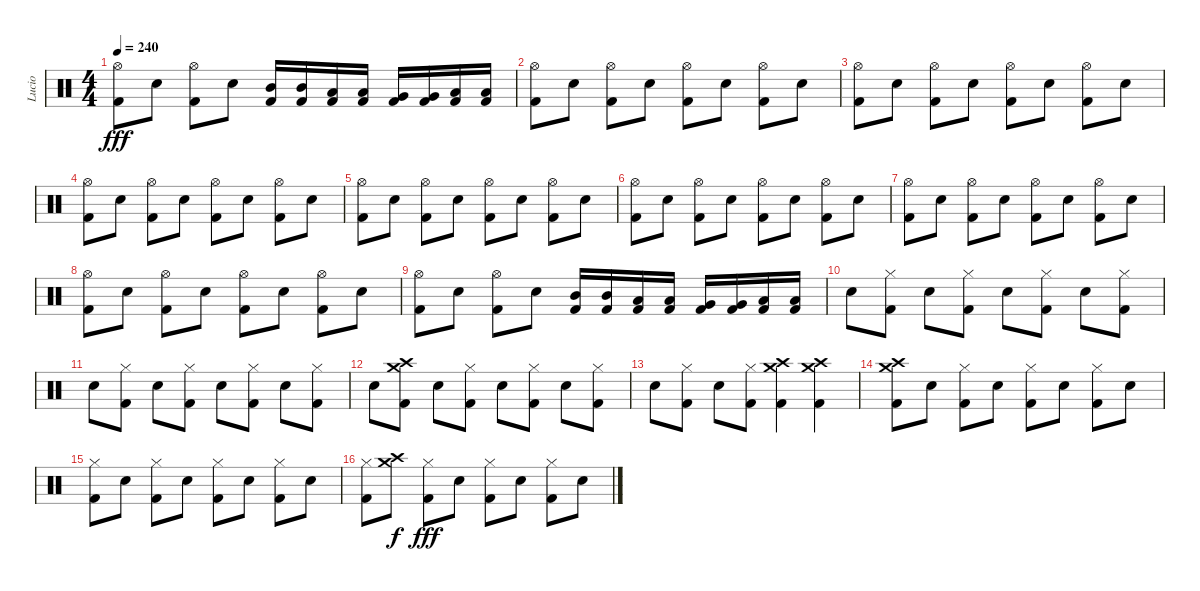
\track ("Lucio" "Lucio") {instrument percussion}
\staff {score}
\articulation defaults
\ts (4 4)
\tempo 240
\clef neutral
\ks c
("Hi-Hat (open)" "Kick (hit) 2").8{dy fff} "Electric Snare (hit)".8 ("Hi-Hat (open)" "Kick (hit) 2").8 "Electric Snare (hit)".8 ("Mid Tom (hit)" "Kick (hit) 2").16 ("Mid Tom (hit)" "Kick (hit) 2").16 ("Low Tom (hit)" "Kick (hit) 2").16 ("Low Tom (hit)" "Kick (hit) 2").16 ("Very Low Tom (hit)" "Kick (hit) 2").16 ("Very Low Tom (hit)" "Kick (hit) 2").16 ("Low Floor Tom (hit)" "Kick (hit) 2").16 ("Low Floor Tom (hit)" "Kick (hit) 2").16 |
("Hi-Hat (open)" "Kick (hit) 2").8 "Electric Snare (hit)".8 ("Hi-Hat (open)" "Kick (hit) 2").8 "Electric Snare (hit)".8 ("Hi-Hat (open)" "Kick (hit) 2").8 "Electric Snare (hit)".8 ("Hi-Hat (open)" "Kick (hit) 2").8 "Electric Snare (hit)".8 |
("Hi-Hat (open)" "Kick (hit) 2").8 "Electric Snare (hit)".8 ("Hi-Hat (open)" "Kick (hit) 2").8 "Electric Snare (hit)".8 ("Hi-Hat (open)" "Kick (hit) 2").8 "Electric Snare (hit)".8 ("Hi-Hat (open)" "Kick (hit) 2").8 "Electric Snare (hit)".8 |
("Hi-Hat (open)" "Kick (hit) 2").8 "Electric Snare (hit)".8 ("Hi-Hat (open)" "Kick (hit) 2").8 "Electric Snare (hit)".8 ("Hi-Hat (open)" "Kick (hit) 2").8 "Electric Snare (hit)".8 ("Hi-Hat (open)" "Kick (hit) 2").8 "Electric Snare (hit)".8 |
("Hi-Hat (open)" "Kick (hit) 2").8 "Electric Snare (hit)".8 ("Hi-Hat (open)" "Kick (hit) 2").8 "Electric Snare (hit)".8 ("Hi-Hat (open)" "Kick (hit) 2").8 "Electric Snare (hit)".8 ("Hi-Hat (open)" "Kick (hit) 2").8 "Electric Snare (hit)".8 |
("Hi-Hat (open)" "Kick (hit) 2").8 "Electric Snare (hit)".8 ("Hi-Hat (open)" "Kick (hit) 2").8 "Electric Snare (hit)".8 ("Hi-Hat (open)" "Kick (hit) 2").8 "Electric Snare (hit)".8 ("Hi-Hat (open)" "Kick (hit) 2").8 "Electric Snare (hit)".8 |
("Hi-Hat (open)" "Kick (hit) 2").8 "Electric Snare (hit)".8 ("Hi-Hat (open)" "Kick (hit) 2").8 "Electric Snare (hit)".8 ("Hi-Hat (open)" "Kick (hit) 2").8 "Electric Snare (hit)".8 ("Hi-Hat (open)" "Kick (hit) 2").8 "Electric Snare (hit)".8 |
("Hi-Hat (open)" "Kick (hit) 2").8 "Electric Snare (hit)".8 ("Hi-Hat (open)" "Kick (hit) 2").8 "Electric Snare (hit)".8 ("Hi-Hat (open)" "Kick (hit) 2").8 "Electric Snare (hit)".8 ("Hi-Hat (open)" "Kick (hit) 2").8 "Electric Snare (hit)".8 |
("Hi-Hat (open)" "Kick (hit) 2").8 "Electric Snare (hit)".8 ("Hi-Hat (open)" "Kick (hit) 2").8 "Electric Snare (hit)".8 ("Mid Tom (hit)" "Kick (hit) 2").16 ("Mid Tom (hit)" "Kick (hit) 2").16 ("Low Tom (hit)" "Kick (hit) 2").16 ("Low Tom (hit)" "Kick (hit) 2").16 ("Very Low Tom (hit)" "Kick (hit) 2").16 ("Very Low Tom (hit)" "Kick (hit) 2").16 ("Low Floor Tom (hit)" "Kick (hit) 2").16 ("Low Floor Tom (hit)" "Kick (hit) 2").16 |
"Electric Snare (hit)".8 ("Hi-Hat (closed)" "Kick (hit) 2").8 "Electric Snare (hit)".8 ("Hi-Hat (closed)" "Kick (hit) 2").8 "Electric Snare (hit)".8 ("Hi-Hat (closed)" "Kick (hit) 2").8 "Electric Snare (hit)".8 ("Hi-Hat (closed)" "Kick (hit) 2").8 |
"Electric Snare (hit)".8 ("Hi-Hat (closed)" "Kick (hit) 2").8 "Electric Snare (hit)".8 ("Hi-Hat (closed)" "Kick (hit) 2").8 "Electric Snare (hit)".8 ("Hi-Hat (closed)" "Kick (hit) 2").8 "Electric Snare (hit)".8 ("Hi-Hat (closed)" "Kick (hit) 2").8 |
"Electric Snare (hit)".8 ("Crash medium (hit)" "Crash high (hit)" "Kick (hit) 2").8 "Electric Snare (hit)".8 ("Hi-Hat (closed)" "Kick (hit) 2").8 "Electric Snare (hit)".8 ("Hi-Hat (closed)" "Kick (hit) 2").8 "Electric Snare (hit)".8 ("Hi-Hat (closed)" "Kick (hit) 2").8 |
"Electric Snare (hit)".8 ("Hi-Hat (closed)" "Kick (hit) 2").8 "Electric Snare (hit)".8 ("Hi-Hat (closed)" "Kick (hit) 2").8 ("Crash medium (hit)" "Crash high (hit)" "Kick (hit) 2").4 ("Crash medium (hit)" "Crash high (hit)" "Kick (hit) 2").4 |
("Crash medium (hit)" "Crash high (hit)" "Kick (hit) 2").8 "Electric Snare (hit)".8 ("Hi-Hat (closed)" "Kick (hit) 2").8 "Electric Snare (hit)".8 ("Hi-Hat (closed)" "Kick (hit) 2").8 "Electric Snare (hit)".8 ("Hi-Hat (closed)" "Kick (hit) 2").8 "Electric Snare (hit)".8 |
("Hi-Hat (closed)" "Kick (hit) 2").8 "Electric Snare (hit)".8 ("Hi-Hat (closed)" "Kick (hit) 2").8 "Electric Snare (hit)".8 ("Hi-Hat (closed)" "Kick (hit) 2").8 "Electric Snare (hit)".8 ("Hi-Hat (closed)" "Kick (hit) 2").8 "Electric Snare (hit)".8 |
("Hi-Hat (closed)" "Kick (hit) 2").8 ("Crash medium (hit)" "Crash high (hit)").8{dy f} ("Hi-Hat (closed)" "Kick (hit) 2").8{dy fff} "Electric Snare (hit)".8 ("Hi-Hat (closed)" "Kick (hit) 2").8 "Electric Snare (hit)".8 ("Hi-Hat (closed)" "Kick (hit) 2").8 "Electric Snare (hit)".8
